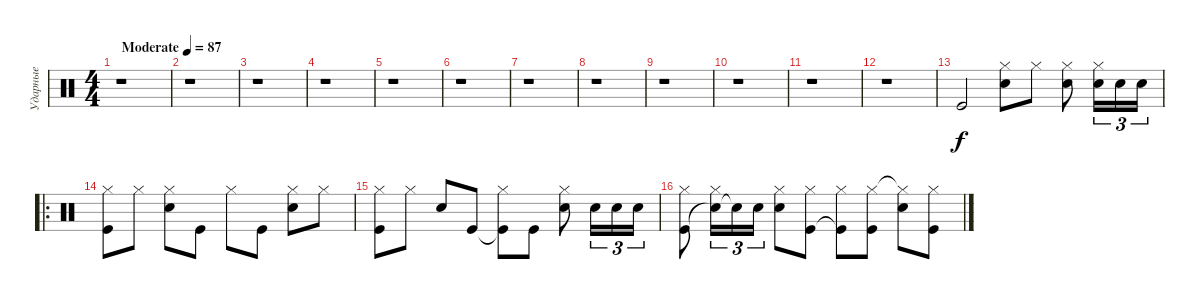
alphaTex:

\track ("Ударные" "Ударные") {instrument percussion}
\staff {score}
\articulation defaults
\ts (4 4)
\tempo (87 "Moderate")
\clef neutral
\ks c
r.1{dy f} |
r.1 |
r.1 |
r.1 |
r.1 |
r.1 |
r.1 |
r.1 |
r.1 |
r.1 |
r.1 |
r.1 |
"Kick (hit)".2 ("Snare (hit) 2" "Hi-Hat (closed)").8 "Hi-Hat (closed)".8 ("Snare (hit) 2" "Hi-Hat (closed)").8 ("Snare (hit) 2" "Hi-Hat (closed)").16{tu (3 2)} "Snare (hit) 2".16{tu (3 2)} "Snare (hit) 2".16{tu (3 2)} |
\ro
("Kick (hit)" "Hi-Hat (closed)").8 "Hi-Hat (closed)".8 ("Snare (hit) 2" "Hi-Hat (closed)").8 "Kick (hit)".8 "Hi-Hat (closed)".8 "Kick (hit)".8 ("Snare (hit) 2" "Hi-Hat (closed)").8 "Hi-Hat (closed)".8 |
("Kick (hit)" "Hi-Hat (closed)").8 "Hi-Hat (closed)".8 "Snare (hit) 2".8 "Kick (hit)".8 ("Kick (hit)"{t} "Hi-Hat (closed)").8 "Kick (hit)".8 ("Snare (hit) 2" "Hi-Hat (closed)").8 "Snare (hit) 2".16{tu (3 2)} "Snare (hit) 2".16{tu (3 2)} "Snare (hit) 2".16{tu (3 2)} |
("Kick (hit)" "Hi-Hat (closed)").8 ("Snare (hit) 2"{t} "Hi-Hat (closed)").16{tu (3 2)} "Snare (hit) 2"{t}.16{tu (3 2)} "Snare (hit) 2".16{tu (3 2)} ("Snare (hit) 2" "Hi-Hat (closed)").8 ("Kick (hit)" "Hi-Hat (closed)").8 ("Kick (hit)"{t} "Hi-Hat (closed)").8 ("Kick (hit)" "Hi-Hat (closed)").8 ("Snare (hit) 2" "Hi-Hat (closed)"{t}).8 ("Kick (hit)" "Hi-Hat (closed)").8
